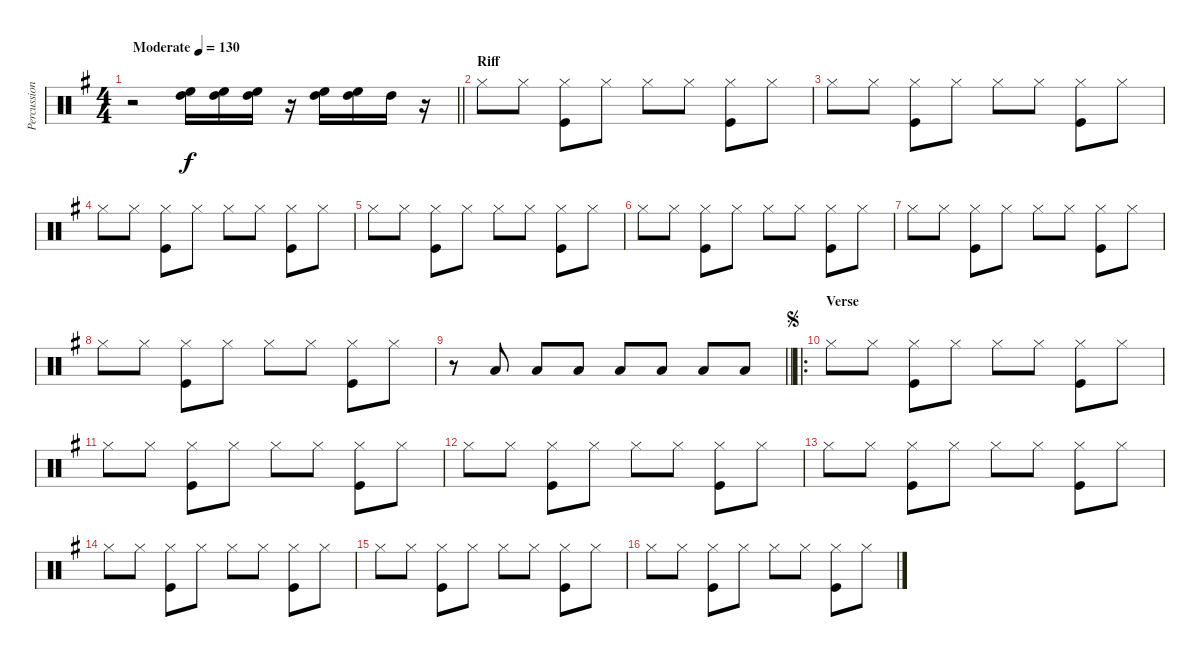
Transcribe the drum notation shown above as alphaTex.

\track ("Percussion" "Percussion") {instrument percussion}
\staff {score}
\articulation defaults
\ts (4 4)
\tempo (130 "Moderate")
\clef neutral
\barLineRight lightlight
\ks g
r.2{dy f} ("High Floor Tom (hit)" "High Tom (hit)").16 ("High Floor Tom (hit)" "High Tom (hit)").16 ("High Floor Tom (hit)" "High Tom (hit)").16 r.16 ("High Floor Tom (hit)" "High Tom (hit)").16 ("High Floor Tom (hit)" "High Tom (hit)").16 "High Tom (hit)".16 r.16 |
\section ("" "Riff")
"Hi-Hat (closed)".8 "Hi-Hat (closed)".8 ("Hi-Hat (closed)" "Kick (hit)").8 "Hi-Hat (closed)".8 "Hi-Hat (closed)".8 "Hi-Hat (closed)".8 ("Hi-Hat (closed)" "Kick (hit)").8 "Hi-Hat (closed)".8 |
"Hi-Hat (closed)".8 "Hi-Hat (closed)".8 ("Hi-Hat (closed)" "Kick (hit)").8 "Hi-Hat (closed)".8 "Hi-Hat (closed)".8 "Hi-Hat (closed)".8 ("Hi-Hat (closed)" "Kick (hit)").8 "Hi-Hat (closed)".8 |
"Hi-Hat (closed)".8 "Hi-Hat (closed)".8 ("Hi-Hat (closed)" "Kick (hit)").8 "Hi-Hat (closed)".8 "Hi-Hat (closed)".8 "Hi-Hat (closed)".8 ("Hi-Hat (closed)" "Kick (hit)").8 "Hi-Hat (closed)".8 |
"Hi-Hat (closed)".8 "Hi-Hat (closed)".8 ("Hi-Hat (closed)" "Kick (hit)").8 "Hi-Hat (closed)".8 "Hi-Hat (closed)".8 "Hi-Hat (closed)".8 ("Hi-Hat (closed)" "Kick (hit)").8 "Hi-Hat (closed)".8 |
"Hi-Hat (closed)".8 "Hi-Hat (closed)".8 ("Hi-Hat (closed)" "Kick (hit)").8 "Hi-Hat (closed)".8 "Hi-Hat (closed)".8 "Hi-Hat (closed)".8 ("Hi-Hat (closed)" "Kick (hit)").8 "Hi-Hat (closed)".8 |
"Hi-Hat (closed)".8 "Hi-Hat (closed)".8 ("Hi-Hat (closed)" "Kick (hit)").8 "Hi-Hat (closed)".8 "Hi-Hat (closed)".8 "Hi-Hat (closed)".8 ("Hi-Hat (closed)" "Kick (hit)").8 "Hi-Hat (closed)".8 |
"Hi-Hat (closed)".8 "Hi-Hat (closed)".8 ("Hi-Hat (closed)" "Kick (hit)").8 "Hi-Hat (closed)".8 "Hi-Hat (closed)".8 "Hi-Hat (closed)".8 ("Hi-Hat (closed)" "Kick (hit)").8 "Hi-Hat (closed)".8 |
\barLineRight lightlight
r.8 "Low Tom (hit)".8 "Low Tom (hit)".8 "Low Tom (hit)".8 "Low Tom (hit)".8 "Low Tom (hit)".8 "Low Tom (hit)".8 "Low Tom (hit)".8 |
\ro
\section ("" "Verse")
\jump segno "Hi-Hat (closed)".8 "Hi-Hat (closed)".8
("Hi-Hat (closed)" "Kick (hit)").8 "Hi-Hat (closed)".8 "Hi-Hat (closed)".8 "Hi-Hat (closed)".8 ("Hi-Hat (closed)" "Kick (hit)").8 "Hi-Hat (closed)".8 |
"Hi-Hat (closed)".8 "Hi-Hat (closed)".8 ("Hi-Hat (closed)" "Kick (hit)").8 "Hi-Hat (closed)".8 "Hi-Hat (closed)".8 "Hi-Hat (closed)".8 ("Hi-Hat (closed)" "Kick (hit)").8 "Hi-Hat (closed)".8 |
"Hi-Hat (closed)".8 "Hi-Hat (closed)".8 ("Hi-Hat (closed)" "Kick (hit)").8 "Hi-Hat (closed)".8 "Hi-Hat (closed)".8 "Hi-Hat (closed)".8 ("Hi-Hat (closed)" "Kick (hit)").8 "Hi-Hat (closed)".8 |
"Hi-Hat (closed)".8 "Hi-Hat (closed)".8 ("Hi-Hat (closed)" "Kick (hit)").8 "Hi-Hat (closed)".8 "Hi-Hat (closed)".8 "Hi-Hat (closed)".8 ("Hi-Hat (closed)" "Kick (hit)").8 "Hi-Hat (closed)".8 |
"Hi-Hat (closed)".8 "Hi-Hat (closed)".8 ("Hi-Hat (closed)" "Kick (hit)").8 "Hi-Hat (closed)".8 "Hi-Hat (closed)".8 "Hi-Hat (closed)".8 ("Hi-Hat (closed)" "Kick (hit)").8 "Hi-Hat (closed)".8 |
"Hi-Hat (closed)".8 "Hi-Hat (closed)".8 ("Hi-Hat (closed)" "Kick (hit)").8 "Hi-Hat (closed)".8 "Hi-Hat (closed)".8 "Hi-Hat (closed)".8 ("Hi-Hat (closed)" "Kick (hit)").8 "Hi-Hat (closed)".8 |
"Hi-Hat (closed)".8 "Hi-Hat (closed)".8 ("Hi-Hat (closed)" "Kick (hit)").8 "Hi-Hat (closed)".8 "Hi-Hat (closed)".8 "Hi-Hat (closed)".8 ("Hi-Hat (closed)" "Kick (hit)").8 "Hi-Hat (closed)".8
